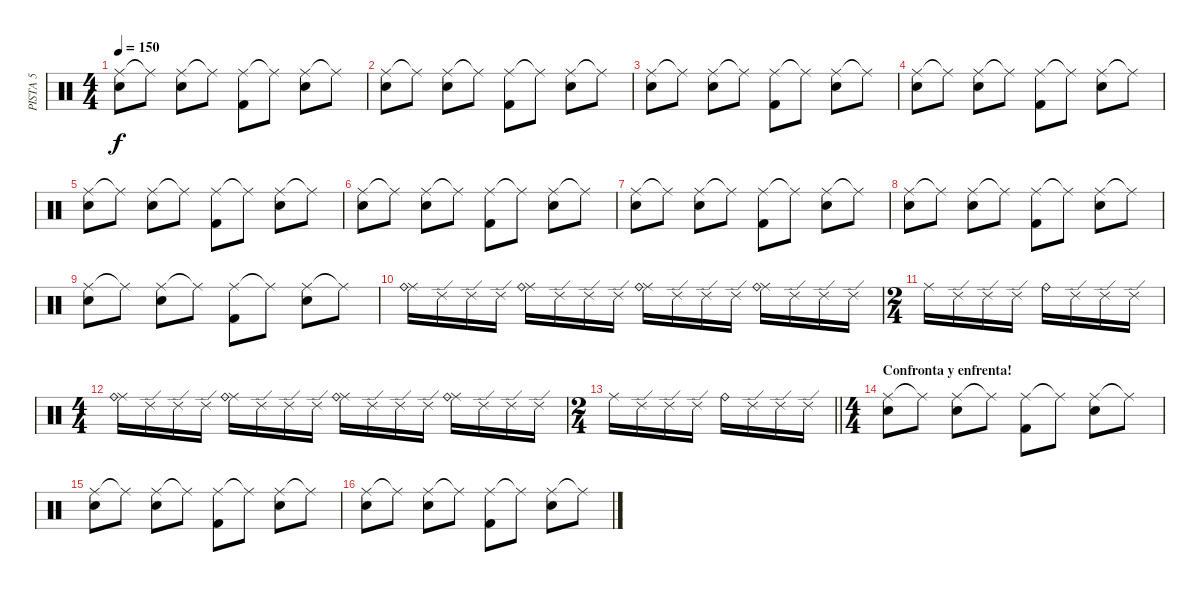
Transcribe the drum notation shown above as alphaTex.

\track ("PISTA 5" "PISTA 5") {instrument percussion}
\staff {score}
\articulation defaults
\ts (4 4)
\tempo 150
\clef neutral
\ks c
("Ride (middle)" "Snare (hit)").8{dy f} "Ride (middle)"{t}.8 ("Ride (middle)" "Electric Snare (hit)").8 "Ride (middle)"{t}.8 ("Ride (middle)" "Kick (hit) 2").8 "Ride (middle)"{t}.8 ("Ride (middle)" "Electric Snare (hit)").8 "Ride (middle)"{t}.8 |
("Ride (middle)" "Snare (hit)").8 "Ride (middle)"{t}.8 ("Ride (middle)" "Electric Snare (hit)").8 "Ride (middle)"{t}.8 ("Ride (middle)" "Kick (hit) 2").8 "Ride (middle)"{t}.8 ("Ride (middle)" "Electric Snare (hit)").8 "Ride (middle)"{t}.8 |
("Ride (middle)" "Snare (hit)").8 "Ride (middle)"{t}.8 ("Ride (middle)" "Electric Snare (hit)").8 "Ride (middle)"{t}.8 ("Ride (middle)" "Kick (hit) 2").8 "Ride (middle)"{t}.8 ("Ride (middle)" "Electric Snare (hit)").8 "Ride (middle)"{t}.8 |
("Ride (middle)" "Snare (hit)").8 "Ride (middle)"{t}.8 ("Ride (middle)" "Electric Snare (hit)").8 "Ride (middle)"{t}.8 ("Ride (middle)" "Kick (hit) 2").8 "Ride (middle)"{t}.8 ("Ride (middle)" "Electric Snare (hit)").8 "Ride (middle)"{t}.8 |
("Ride (middle)" "Snare (hit)").8 "Ride (middle)"{t}.8 ("Ride (middle)" "Electric Snare (hit)").8 "Ride (middle)"{t}.8 ("Ride (middle)" "Kick (hit) 2").8 "Ride (middle)"{t}.8 ("Ride (middle)" "Electric Snare (hit)").8 "Ride (middle)"{t}.8 |
("Ride (middle)" "Snare (hit)").8 "Ride (middle)"{t}.8 ("Ride (middle)" "Electric Snare (hit)").8 "Ride (middle)"{t}.8 ("Ride (middle)" "Kick (hit) 2").8 "Ride (middle)"{t}.8 ("Ride (middle)" "Electric Snare (hit)").8 "Ride (middle)"{t}.8 |
("Ride (middle)" "Snare (hit)").8 "Ride (middle)"{t}.8 ("Ride (middle)" "Electric Snare (hit)").8 "Ride (middle)"{t}.8 ("Ride (middle)" "Kick (hit) 2").8 "Ride (middle)"{t}.8 ("Ride (middle)" "Electric Snare (hit)").8 "Ride (middle)"{t}.8 |
("Ride (middle)" "Snare (hit)").8 "Ride (middle)"{t}.8 ("Ride (middle)" "Electric Snare (hit)").8 "Ride (middle)"{t}.8 ("Ride (middle)" "Kick (hit) 2").8 "Ride (middle)"{t}.8 ("Ride (middle)" "Electric Snare (hit)").8 "Ride (middle)"{t}.8 |
("Ride (middle)" "Snare (hit)").8 "Ride (middle)"{t}.8 ("Ride (middle)" "Electric Snare (hit)").8 "Ride (middle)"{t}.8 ("Ride (middle)" "Kick (hit) 2").8 "Ride (middle)"{t}.8 ("Ride (middle)" "Electric Snare (hit)").8 "Ride (middle)"{t}.8 |
("Ride (middle)" "Ride (bell)").16 "Ride (edge) 2".16 "Ride (edge) 2".16 "Ride (edge) 2".16 ("Ride (middle)" "Ride (bell)").16 "Ride (edge) 2".16 "Ride (edge) 2".16 "Ride (edge) 2".16 ("Ride (middle)" "Ride (bell)").16 "Ride (edge) 2".16 "Ride (edge) 2".16 "Ride (edge) 2".16 ("Ride (middle)" "Ride (bell)").16 "Ride (edge) 2".16 "Ride (edge) 2".16 "Ride (edge) 2".16 |
\ts (2 4)
"Ride (middle)".16 "Ride (edge) 2".16 "Ride (edge) 2".16 "Ride (edge) 2".16 "Ride (bell)".16 "Ride (edge) 2".16 "Ride (edge) 2".16 "Ride (edge) 2".16 |
\ts (4 4)
("Ride (middle)" "Ride (bell)").16 "Ride (edge) 2".16 "Ride (edge) 2".16 "Ride (edge) 2".16 ("Ride (middle)" "Ride (bell)").16 "Ride (edge) 2".16 "Ride (edge) 2".16 "Ride (edge) 2".16 ("Ride (middle)" "Ride (bell)").16 "Ride (edge) 2".16 "Ride (edge) 2".16 "Ride (edge) 2".16 ("Ride (middle)" "Ride (bell)").16 "Ride (edge) 2".16 "Ride (edge) 2".16 "Ride (edge) 2".16 |
\ts (2 4)
\barLineRight lightlight "Ride (middle)".16 "Ride (edge) 2".16 "Ride (edge) 2".16 "Ride (edge) 2".16 "Ride (bell)".16 "Ride (edge) 2".16 "Ride (edge) 2".16 "Ride (edge) 2".16
|
\ts (4 4)
\section ("" "Confronta y enfrenta!")
("Ride (middle)" "Snare (hit)").8 "Ride (middle)"{t}.8 ("Ride (middle)" "Electric Snare (hit)").8 "Ride (middle)"{t}.8 ("Ride (middle)" "Kick (hit) 2").8 "Ride (middle)"{t}.8 ("Ride (middle)" "Electric Snare (hit)").8 "Ride (middle)"{t}.8 |
("Ride (middle)" "Snare (hit)").8 "Ride (middle)"{t}.8 ("Ride (middle)" "Electric Snare (hit)").8 "Ride (middle)"{t}.8 ("Ride (middle)" "Kick (hit) 2").8 "Ride (middle)"{t}.8 ("Ride (middle)" "Electric Snare (hit)").8 "Ride (middle)"{t}.8 |
("Ride (middle)" "Snare (hit)").8 "Ride (middle)"{t}.8 ("Ride (middle)" "Electric Snare (hit)").8 "Ride (middle)"{t}.8 ("Ride (middle)" "Kick (hit) 2").8 "Ride (middle)"{t}.8 ("Ride (middle)" "Electric Snare (hit)").8 "Ride (middle)"{t}.8
